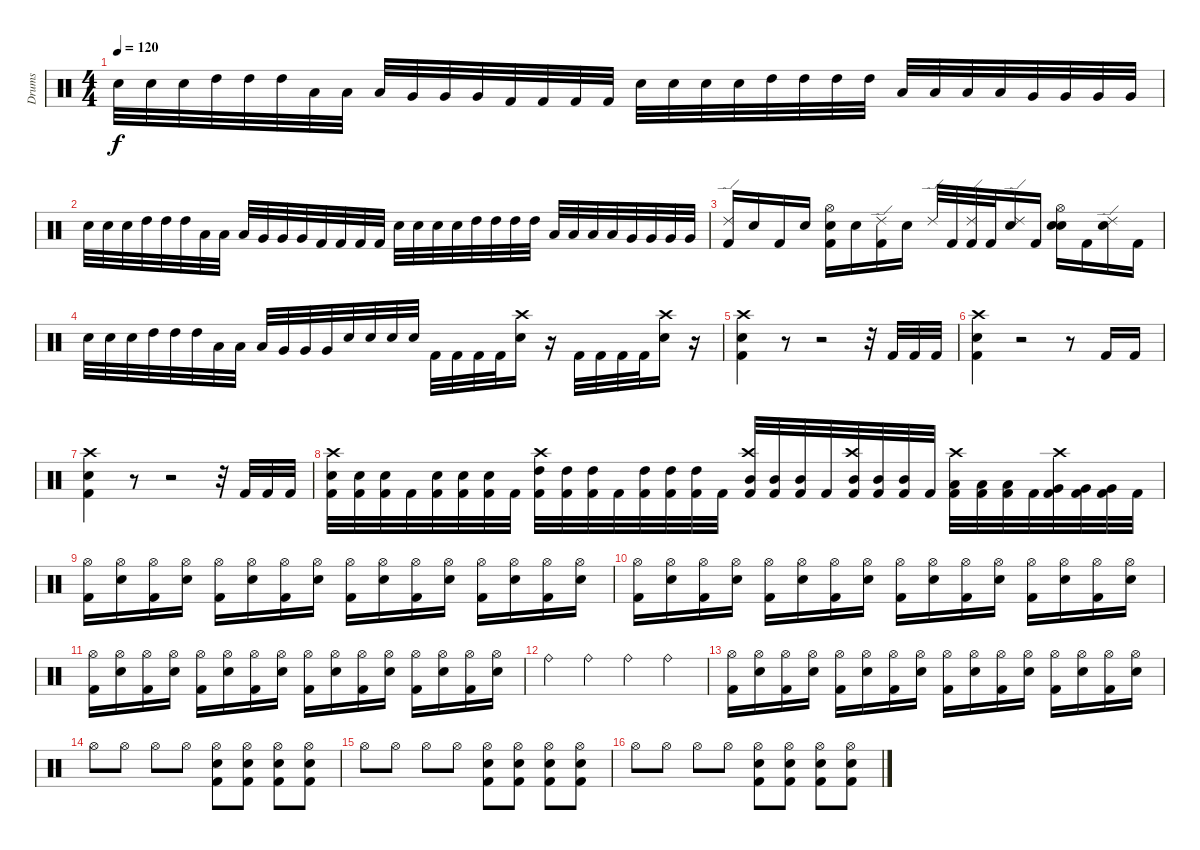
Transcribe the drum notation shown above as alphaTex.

\track ("Drums" "Drums") {instrument percussion}
\staff {score}
\articulation defaults
\ts (4 4)
\tempo 120
\clef neutral
\ks c "Snare (hit) 2".32{dy f} "Snare (hit) 2".32 "Snare (hit) 2".32 "High Tom (hit)".32 "High Tom (hit)".32 "High Tom (hit)".32 "Low Tom (hit)".32 "Low Tom (hit)".32 "Low Tom (hit)".32 "Very Low Tom (hit)".32 "Very Low Tom (hit)".32 "Very Low Tom (hit)".32 "Kick (hit) 2".32 "Kick (hit) 2".32 "Kick (hit) 2".32 "Kick (hit) 2".32 "Snare (hit) 2".32 "Snare (hit) 2".32 "Snare (hit) 2".32 "Snare (hit) 2".32 "High Tom (hit)".32 "High Tom (hit)".32 "High Tom (hit)".32 "High Tom (hit)".32 "Low Tom (hit)".32 "Low Tom (hit)".32 "Low Tom (hit)".32 "Low Tom (hit)".32 "Very Low Tom (hit)".32 "Very Low Tom (hit)".32 "Very Low Tom (hit)".32 "Very Low Tom (hit)".32
|
"Snare (hit) 2".32 "Snare (hit) 2".32 "Snare (hit) 2".32 "High Tom (hit)".32 "High Tom (hit)".32 "High Tom (hit)".32 "Low Tom (hit)".32 "Low Tom (hit)".32 "Low Tom (hit)".32 "Very Low Tom (hit)".32 "Very Low Tom (hit)".32 "Very Low Tom (hit)".32 "Kick (hit) 2".32 "Kick (hit) 2".32 "Kick (hit) 2".32 "Kick (hit) 2".32 "Snare (hit) 2".32 "Snare (hit) 2".32 "Snare (hit) 2".32 "Snare (hit) 2".32 "High Tom (hit)".32 "High Tom (hit)".32 "High Tom (hit)".32 "High Tom (hit)".32 "Low Tom (hit)".32 "Low Tom (hit)".32 "Low Tom (hit)".32 "Low Tom (hit)".32 "Very Low Tom (hit)".32 "Very Low Tom (hit)".32 "Very Low Tom (hit)".32 "Very Low Tom (hit)".32 |
("Ride (edge) 2" "Kick (hit) 2").16 "Snare (hit) 2".16 "Kick (hit) 2".16 "Snare (hit) 2".16 ("Hi-Hat (open)" "Snare (hit) 2" "Kick (hit) 2").16 "Snare (hit) 2".16 ("Ride (edge) 2" "Kick (hit) 2").16 "Snare (hit) 2".16 "Ride (edge) 2".32 "Kick (hit) 2".32 ("Ride (edge) 2" "Kick (hit) 2").32 "Kick (hit) 2".32 ("Ride (edge) 2" "Snare (hit) 2").16 "Kick (hit) 2".16 ("Hi-Hat (open)" "Snare (hit) 2" "Snare (hit) 2").16 "Kick (hit) 2".16 ("Ride (edge) 2" "Snare (hit) 2").16 "Kick (hit) 2".16 |
"Snare (hit) 2".32 "Snare (hit) 2".32 "Snare (hit) 2".32 "High Tom (hit)".32 "High Tom (hit)".32 "High Tom (hit)".32 "Low Tom (hit)".32 "Low Tom (hit)".32 "Low Tom (hit)".32 "Very Low Tom (hit)".32 "Very Low Tom (hit)".32 "Very Low Tom (hit)".32 "Snare (hit) 2".32 "Snare (hit) 2".32 "Snare (hit) 2".32 "Snare (hit) 2".32 "Kick (hit) 2".32 "Kick (hit) 2".32 "Kick (hit) 2".32 "Kick (hit) 2".32 ("Crash high (hit)" "Snare (hit) 2").16 r.16 "Kick (hit) 2".32 "Kick (hit) 2".32 "Kick (hit) 2".32 "Kick (hit) 2".32 ("Crash high (hit)" "Snare (hit) 2").16 r.16 |
("Crash high (hit)" "Snare (hit) 2" "Kick (hit) 2").4 r.8 r.2 r.32 "Kick (hit) 2".32 "Kick (hit) 2".32 "Kick (hit) 2".32 |
("Crash high (hit)" "Snare (hit) 2" "Kick (hit) 2").4 r.2 r.8 "Kick (hit) 2".16 "Kick (hit) 2".16 |
("Crash high (hit)" "Snare (hit) 2" "Kick (hit) 2").4 r.8 r.2 r.32 "Kick (hit) 2".32 "Kick (hit) 2".32 "Kick (hit) 2".32 |
("Crash high (hit)" "Snare (hit) 2" "Kick (hit) 2").32 ("Snare (hit) 2" "Kick (hit) 2").32 ("Snare (hit) 2" "Kick (hit) 2").32 "Kick (hit) 2".32 ("Snare (hit) 2" "Kick (hit) 2").32 ("Snare (hit) 2" "Kick (hit) 2").32 ("Snare (hit) 2" "Kick (hit) 2").32 "Kick (hit) 2".32 ("Crash high (hit)" "High Tom (hit)" "Kick (hit) 2").32 ("High Tom (hit)" "Kick (hit) 2").32 ("High Tom (hit)" "Kick (hit) 2").32 "Kick (hit) 2".32 ("High Tom (hit)" "Kick (hit) 2").32 ("High Tom (hit)" "Kick (hit) 2").32 ("High Tom (hit)" "Kick (hit) 2").32 "Kick (hit) 2".32 ("Crash high (hit)" "Mid Tom (hit)" "Kick (hit) 2").32 ("Mid Tom (hit)" "Kick (hit) 2").32 ("Mid Tom (hit)" "Kick (hit) 2").32 "Kick (hit) 2".32 ("Crash high (hit)" "Mid Tom (hit)" "Kick (hit) 2").32 ("Mid Tom (hit)" "Kick (hit) 2").32 ("Mid Tom (hit)" "Kick (hit) 2").32 "Kick (hit) 2".32 ("Crash high (hit)" "Low Tom (hit)" "Kick (hit) 2").32 ("Low Tom (hit)" "Kick (hit) 2").32 ("Low Tom (hit)" "Kick (hit) 2").32 "Kick (hit) 2".32 ("Crash high (hit)" "Very Low Tom (hit)" "Kick (hit) 2").32 ("Very Low Tom (hit)" "Kick (hit) 2").32 ("Very Low Tom (hit)" "Kick (hit) 2").32 "Kick (hit) 2".32 |
("Hi-Hat (open)" "Kick (hit) 2").16 ("Hi-Hat (open)" "Snare (hit) 2").16 ("Hi-Hat (open)" "Kick (hit) 2").16 ("Hi-Hat (open)" "Snare (hit) 2").16 ("Hi-Hat (open)" "Kick (hit) 2").16 ("Hi-Hat (open)" "Snare (hit) 2").16 ("Hi-Hat (open)" "Kick (hit) 2").16 ("Hi-Hat (open)" "Snare (hit) 2").16 ("Hi-Hat (open)" "Kick (hit) 2").16 ("Hi-Hat (open)" "Snare (hit) 2").16 ("Hi-Hat (open)" "Kick (hit) 2").16 ("Hi-Hat (open)" "Snare (hit) 2").16 ("Hi-Hat (open)" "Kick (hit) 2").16 ("Hi-Hat (open)" "Snare (hit) 2").16 ("Hi-Hat (open)" "Kick (hit) 2").16 ("Hi-Hat (open)" "Snare (hit) 2").16 |
("Hi-Hat (open)" "Kick (hit) 2").16 ("Hi-Hat (open)" "Snare (hit) 2").16 ("Hi-Hat (open)" "Kick (hit) 2").16 ("Hi-Hat (open)" "Snare (hit) 2").16 ("Hi-Hat (open)" "Kick (hit) 2").16 ("Hi-Hat (open)" "Snare (hit) 2").16 ("Hi-Hat (open)" "Kick (hit) 2").16 ("Hi-Hat (open)" "Snare (hit) 2").16 ("Hi-Hat (open)" "Kick (hit) 2").16 ("Hi-Hat (open)" "Snare (hit) 2").16 ("Hi-Hat (open)" "Kick (hit) 2").16 ("Hi-Hat (open)" "Snare (hit) 2").16 ("Hi-Hat (open)" "Kick (hit) 2").16 ("Hi-Hat (open)" "Snare (hit) 2").16 ("Hi-Hat (open)" "Kick (hit) 2").16 ("Hi-Hat (open)" "Snare (hit) 2").16 |
("Hi-Hat (open)" "Kick (hit) 2").16 ("Hi-Hat (open)" "Snare (hit) 2").16 ("Hi-Hat (open)" "Kick (hit) 2").16 ("Hi-Hat (open)" "Snare (hit) 2").16 ("Hi-Hat (open)" "Kick (hit) 2").16 ("Hi-Hat (open)" "Snare (hit) 2").16 ("Hi-Hat (open)" "Kick (hit) 2").16 ("Hi-Hat (open)" "Snare (hit) 2").16 ("Hi-Hat (open)" "Kick (hit) 2").16 ("Hi-Hat (open)" "Snare (hit) 2").16 ("Hi-Hat (open)" "Kick (hit) 2").16 ("Hi-Hat (open)" "Snare (hit) 2").16 ("Hi-Hat (open)" "Kick (hit) 2").16 ("Hi-Hat (open)" "Snare (hit) 2").16 ("Hi-Hat (open)" "Kick (hit) 2").16 ("Hi-Hat (open)" "Snare (hit) 2").16 |
"Ride (bell)".4 "Ride (bell)".4 "Ride (bell)".4 "Ride (bell)".4 |
("Hi-Hat (open)" "Kick (hit) 2").16 ("Hi-Hat (open)" "Snare (hit) 2").16 ("Hi-Hat (open)" "Kick (hit) 2").16 ("Hi-Hat (open)" "Snare (hit) 2").16 ("Hi-Hat (open)" "Kick (hit) 2").16 ("Hi-Hat (open)" "Snare (hit) 2").16 ("Hi-Hat (open)" "Kick (hit) 2").16 ("Hi-Hat (open)" "Snare (hit) 2").16 ("Hi-Hat (open)" "Kick (hit) 2").16 ("Hi-Hat (open)" "Snare (hit) 2").16 ("Hi-Hat (open)" "Kick (hit) 2").16 ("Hi-Hat (open)" "Snare (hit) 2").16 ("Hi-Hat (open)" "Kick (hit) 2").16 ("Hi-Hat (open)" "Snare (hit) 2").16 ("Hi-Hat (open)" "Kick (hit) 2").16 ("Hi-Hat (open)" "Snare (hit) 2").16 |
"Hi-Hat (open)".8 "Hi-Hat (open)".8 "Hi-Hat (open)".8 "Hi-Hat (open)".8 ("Hi-Hat (open)" "Snare (hit) 2" "Kick (hit) 2").8 ("Hi-Hat (open)" "Snare (hit) 2" "Kick (hit) 2").8 ("Hi-Hat (open)" "Snare (hit) 2" "Kick (hit) 2").8 ("Hi-Hat (open)" "Snare (hit) 2" "Kick (hit) 2").8 |
"Hi-Hat (open)".8 "Hi-Hat (open)".8 "Hi-Hat (open)".8 "Hi-Hat (open)".8 ("Hi-Hat (open)" "Snare (hit) 2" "Kick (hit) 2").8 ("Hi-Hat (open)" "Snare (hit) 2" "Kick (hit) 2").8 ("Hi-Hat (open)" "Snare (hit) 2" "Kick (hit) 2").8 ("Hi-Hat (open)" "Snare (hit) 2" "Kick (hit) 2").8 |
"Hi-Hat (open)".8 "Hi-Hat (open)".8 "Hi-Hat (open)".8 "Hi-Hat (open)".8 ("Hi-Hat (open)" "Snare (hit) 2" "Kick (hit) 2").8 ("Hi-Hat (open)" "Snare (hit) 2" "Kick (hit) 2").8 ("Hi-Hat (open)" "Snare (hit) 2" "Kick (hit) 2").8 ("Hi-Hat (open)" "Snare (hit) 2" "Kick (hit) 2").8
